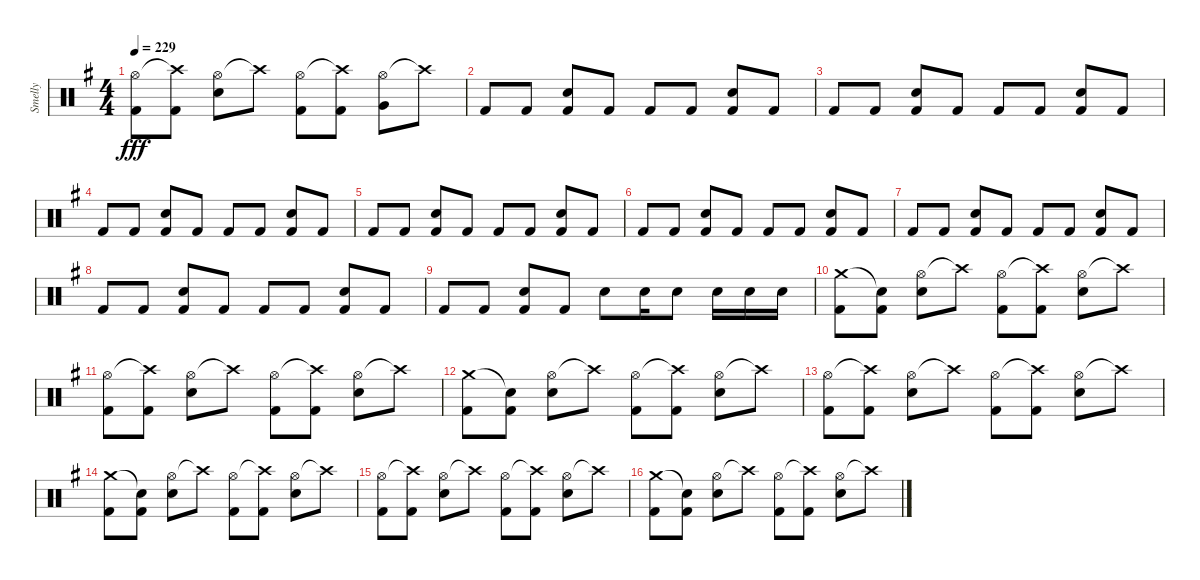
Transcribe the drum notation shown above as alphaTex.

\track ("Smelly" "Smelly") {instrument percussion}
\staff {score}
\articulation defaults
\ts (4 4)
\tempo 229
\clef neutral
\ks eminor
("Hi-Hat (open)" "Kick (hit) 2").8{dy fff} ("Crash high (hit)"{t} "Kick (hit) 2").8 ("Hi-Hat (open)" "Electric Snare (hit)").8 "Crash high (hit)"{t}.8 ("Hi-Hat (open)" "Kick (hit) 2").8 ("Crash high (hit)"{t} "Kick (hit) 2").8 ("Hi-Hat (open)" "Very Low Tom (hit)").8 "Crash high (hit)"{t}.8 |
"Kick (hit) 2".8 "Kick (hit) 2".8 ("Electric Snare (hit)" "Kick (hit) 2").8 "Kick (hit) 2".8 "Kick (hit) 2".8 "Kick (hit) 2".8 ("Electric Snare (hit)" "Kick (hit) 2").8 "Kick (hit) 2".8 |
"Kick (hit) 2".8 "Kick (hit) 2".8 ("Electric Snare (hit)" "Kick (hit) 2").8 "Kick (hit) 2".8 "Kick (hit) 2".8 "Kick (hit) 2".8 ("Electric Snare (hit)" "Kick (hit) 2").8 "Kick (hit) 2".8 |
"Kick (hit) 2".8 "Kick (hit) 2".8 ("Electric Snare (hit)" "Kick (hit) 2").8 "Kick (hit) 2".8 "Kick (hit) 2".8 "Kick (hit) 2".8 ("Electric Snare (hit)" "Kick (hit) 2").8 "Kick (hit) 2".8 |
"Kick (hit) 2".8 "Kick (hit) 2".8 ("Electric Snare (hit)" "Kick (hit) 2").8 "Kick (hit) 2".8 "Kick (hit) 2".8 "Kick (hit) 2".8 ("Electric Snare (hit)" "Kick (hit) 2").8 "Kick (hit) 2".8 |
"Kick (hit) 2".8 "Kick (hit) 2".8 ("Electric Snare (hit)" "Kick (hit) 2").8 "Kick (hit) 2".8 "Kick (hit) 2".8 "Kick (hit) 2".8 ("Electric Snare (hit)" "Kick (hit) 2").8 "Kick (hit) 2".8 |
"Kick (hit) 2".8 "Kick (hit) 2".8 ("Electric Snare (hit)" "Kick (hit) 2").8 "Kick (hit) 2".8 "Kick (hit) 2".8 "Kick (hit) 2".8 ("Electric Snare (hit)" "Kick (hit) 2").8 "Kick (hit) 2".8 |
"Kick (hit) 2".8 "Kick (hit) 2".8 ("Electric Snare (hit)" "Kick (hit) 2").8 "Kick (hit) 2".8 "Kick (hit) 2".8 "Kick (hit) 2".8 ("Electric Snare (hit)" "Kick (hit) 2").8 "Kick (hit) 2".8 |
"Kick (hit) 2".8 "Kick (hit) 2".8 ("Electric Snare (hit)" "Kick (hit) 2").8 "Kick (hit) 2".8 "Electric Snare (hit)".8 "Electric Snare (hit)".16 "Electric Snare (hit)".8 "Electric Snare (hit)".16 "Electric Snare (hit)".16 "Electric Snare (hit)".16 |
("Crash medium (hit)" "Kick (hit) 2").8 ("Snare (hit)"{t} "Kick (hit) 2").8 ("Hi-Hat (open)" "Electric Snare (hit)").8 "Crash high (hit)"{t}.8 ("Hi-Hat (open)" "Kick (hit) 2").8 ("Crash high (hit)"{t} "Kick (hit) 2").8 ("Hi-Hat (open)" "Electric Snare (hit)").8 "Crash high (hit)"{t}.8 |
("Hi-Hat (open)" "Kick (hit) 2").8 ("Crash high (hit)"{t} "Kick (hit) 2").8 ("Hi-Hat (open)" "Electric Snare (hit)").8 "Crash high (hit)"{t}.8 ("Hi-Hat (open)" "Kick (hit) 2").8 ("Crash high (hit)"{t} "Kick (hit) 2").8 ("Hi-Hat (open)" "Electric Snare (hit)").8 "Crash high (hit)"{t}.8 |
("Crash medium (hit)" "Kick (hit) 2").8 ("Snare (hit)"{t} "Kick (hit) 2").8 ("Hi-Hat (open)" "Electric Snare (hit)").8 "Crash high (hit)"{t}.8 ("Hi-Hat (open)" "Kick (hit) 2").8 ("Crash high (hit)"{t} "Kick (hit) 2").8 ("Hi-Hat (open)" "Electric Snare (hit)").8 "Crash high (hit)"{t}.8 |
("Hi-Hat (open)" "Kick (hit) 2").8 ("Crash high (hit)"{t} "Kick (hit) 2").8 ("Hi-Hat (open)" "Electric Snare (hit)").8 "Crash high (hit)"{t}.8 ("Hi-Hat (open)" "Kick (hit) 2").8 ("Crash high (hit)"{t} "Kick (hit) 2").8 ("Hi-Hat (open)" "Electric Snare (hit)").8 "Crash high (hit)"{t}.8 |
("Crash medium (hit)" "Kick (hit) 2").8 ("Snare (hit)"{t} "Kick (hit) 2").8 ("Hi-Hat (open)" "Electric Snare (hit)").8 "Crash high (hit)"{t}.8 ("Hi-Hat (open)" "Kick (hit) 2").8 ("Crash high (hit)"{t} "Kick (hit) 2").8 ("Hi-Hat (open)" "Electric Snare (hit)").8 "Crash high (hit)"{t}.8 |
("Hi-Hat (open)" "Kick (hit) 2").8 ("Crash high (hit)"{t} "Kick (hit) 2").8 ("Hi-Hat (open)" "Electric Snare (hit)").8 "Crash high (hit)"{t}.8 ("Hi-Hat (open)" "Kick (hit) 2").8 ("Crash high (hit)"{t} "Kick (hit) 2").8 ("Hi-Hat (open)" "Electric Snare (hit)").8 "Crash high (hit)"{t}.8 |
("Crash medium (hit)" "Kick (hit) 2").8 ("Snare (hit)"{t} "Kick (hit) 2").8 ("Hi-Hat (open)" "Electric Snare (hit)").8 "Crash high (hit)"{t}.8 ("Hi-Hat (open)" "Kick (hit) 2").8 ("Crash high (hit)"{t} "Kick (hit) 2").8 ("Hi-Hat (open)" "Electric Snare (hit)").8 "Crash high (hit)"{t}.8
